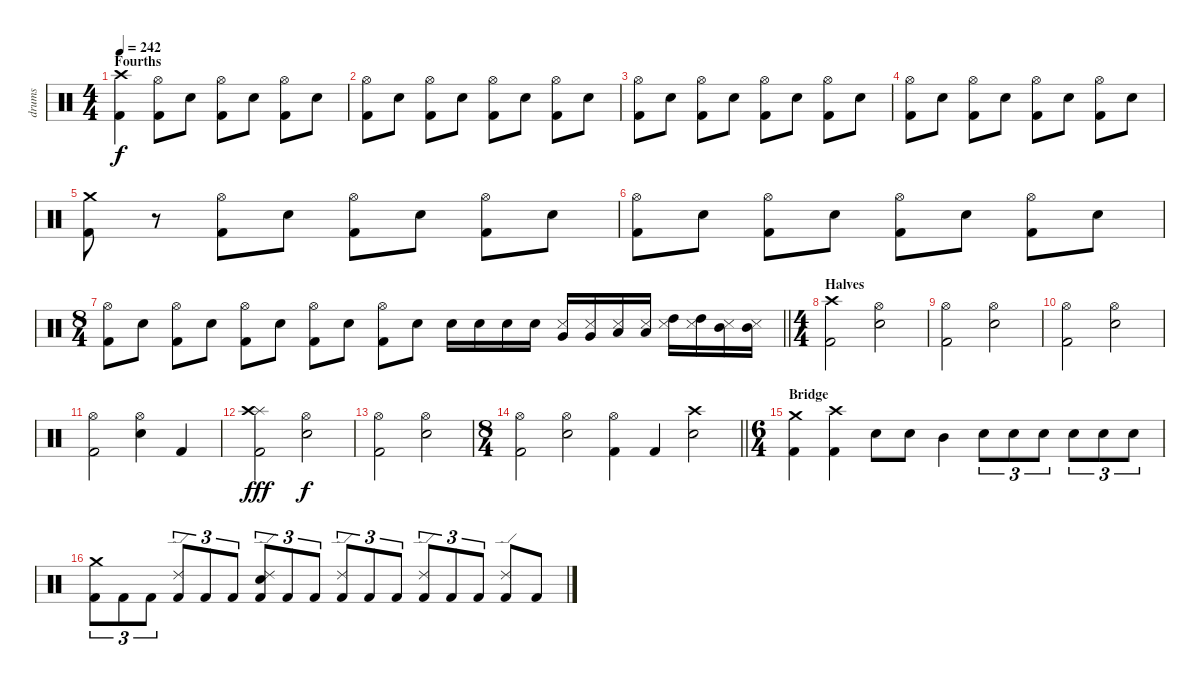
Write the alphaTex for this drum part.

\track ("drums" "drums") {instrument percussion}
\staff {score}
\articulation defaults
\ts (4 4)
\section ("" "Fourths")
\tempo 242
\clef neutral
\ks c
("Crash high (hit)" "Kick (hit) 2").4{dy f} ("Hi-Hat (open)" "Kick (hit) 2").8 "Electric Snare (hit)".8 ("Hi-Hat (open)" "Kick (hit) 2").8 "Electric Snare (hit)".8 ("Hi-Hat (open)" "Kick (hit) 2").8 "Electric Snare (hit)".8 |
("Hi-Hat (open)" "Kick (hit) 2").8 "Electric Snare (hit)".8 ("Hi-Hat (open)" "Kick (hit) 2").8 "Electric Snare (hit)".8 ("Hi-Hat (open)" "Kick (hit) 2").8 "Electric Snare (hit)".8 ("Hi-Hat (open)" "Kick (hit) 2").8 "Electric Snare (hit)".8 |
("Hi-Hat (open)" "Kick (hit) 2").8 "Electric Snare (hit)".8 ("Hi-Hat (open)" "Kick (hit) 2").8 "Electric Snare (hit)".8 ("Hi-Hat (open)" "Kick (hit) 2").8 "Electric Snare (hit)".8 ("Hi-Hat (open)" "Kick (hit) 2").8 "Electric Snare (hit)".8 |
("Hi-Hat (open)" "Kick (hit) 2").8 "Electric Snare (hit)".8 ("Hi-Hat (open)" "Kick (hit) 2").8 "Electric Snare (hit)".8 ("Hi-Hat (open)" "Kick (hit) 2").8 "Electric Snare (hit)".8 ("Hi-Hat (open)" "Kick (hit) 2").8 "Electric Snare (hit)".8 |
("Crash medium (hit)" "Kick (hit) 2").8 r.8 ("Hi-Hat (open)" "Kick (hit) 2").8 "Electric Snare (hit)".8 ("Hi-Hat (open)" "Kick (hit) 2").8 "Electric Snare (hit)".8 ("Hi-Hat (open)" "Kick (hit) 2").8 "Electric Snare (hit)".8 |
("Hi-Hat (open)" "Kick (hit) 2").8 "Electric Snare (hit)".8 ("Hi-Hat (open)" "Kick (hit) 2").8 "Electric Snare (hit)".8 ("Hi-Hat (open)" "Kick (hit) 2").8 "Electric Snare (hit)".8 ("Hi-Hat (open)" "Kick (hit) 2").8 "Electric Snare (hit)".8 |
\ts (8 4)
\barLineRight lightlight
("Hi-Hat (open)" "Kick (hit) 2").8 "Electric Snare (hit)".8 ("Hi-Hat (open)" "Kick (hit) 2").8 "Electric Snare (hit)".8 ("Hi-Hat (open)" "Kick (hit) 2").8 "Electric Snare (hit)".8 ("Hi-Hat (open)" "Kick (hit) 2").8 "Electric Snare (hit)".8 ("Hi-Hat (open)" "Kick (hit) 2").8 "Electric Snare (hit)".8 "Electric Snare (hit)".16 "Electric Snare (hit)".16 "Electric Snare (hit)".16 "Electric Snare (hit)".16 ("Metronome (hit)" "Very Low Tom (hit)").16 ("Metronome (hit)" "Very Low Tom (hit)").16 ("Metronome (hit)" "Low Tom (hit)").16 ("Metronome (hit)" "Low Tom (hit)").16 ("Metronome (hit)" "High Tom (hit)").16 ("Metronome (hit)" "High Tom (hit)").16 ("Metronome (hit)" "Mid Tom (hit)").16 ("Metronome (hit)" "Mid Tom (hit)").16 |
\ts (4 4)
\section ("" "Halves")
("Crash high (hit)" "Kick (hit) 2").2 ("Hi-Hat (open)" "Electric Snare (hit)").2 |
("Hi-Hat (open)" "Kick (hit) 2").2 ("Hi-Hat (open)" "Electric Snare (hit)").2 |
("Hi-Hat (open)" "Kick (hit) 2").2 ("Hi-Hat (open)" "Electric Snare (hit)").2 |
("Hi-Hat (open)" "Kick (hit) 2").2 ("Hi-Hat (open)" "Electric Snare (hit)").4 "Kick (hit) 2".4 |
("Splash (hit)" "Crash high (hit)" "Kick (hit) 2").2{dy fff} ("Hi-Hat (open)" "Electric Snare (hit)").2{dy f} |
("Hi-Hat (open)" "Kick (hit) 2").2 ("Hi-Hat (open)" "Electric Snare (hit)").2 |
\ts (8 4)
\barLineRight lightlight
("Hi-Hat (open)" "Kick (hit) 2").2 ("Hi-Hat (open)" "Electric Snare (hit)").2 ("Hi-Hat (open)" "Kick (hit) 2").4 "Kick (hit) 2".4 ("Crash high (hit)" "Electric Snare (hit)").2 |
\ts (6 4)
\section ("" "Bridge")
("Crash medium (hit)" "Kick (hit) 2").4 ("Crash high (hit)" "Kick (hit) 2").4 "Electric Snare (hit)".8 "Electric Snare (hit)".8 "Mid Tom (hit)".4 "Electric Snare (hit)".8{tu (3 2)} "Electric Snare (hit)".8{tu (3 2)} "Electric Snare (hit)".8{tu (3 2)} "Electric Snare (hit)".8{tu (3 2)} "Electric Snare (hit)".8{tu (3 2)} "Electric Snare (hit)".8{tu (3 2)} |
("Crash medium (hit)" "Kick (hit) 2").8{tu (3 2)} "Kick (hit) 2".8{tu (3 2)} "Kick (hit) 2".8{tu (3 2)} ("Ride (edge) 2" "Kick (hit) 2").8{tu (3 2)} "Kick (hit) 2".8{tu (3 2)} "Kick (hit) 2".8{tu (3 2)} ("Ride (edge) 2" "Electric Snare (hit)" "Kick (hit) 2").8{tu (3 2)} "Kick (hit) 2".8{tu (3 2)} "Kick (hit) 2".8{tu (3 2)} ("Ride (edge) 2" "Kick (hit) 2").8{tu (3 2)} "Kick (hit) 2".8{tu (3 2)} "Kick (hit) 2".8{tu (3 2)} ("Ride (edge) 2" "Kick (hit) 2").8{tu (3 2)} "Kick (hit) 2".8{tu (3 2)} "Kick (hit) 2".8{tu (3 2)} ("Ride (edge) 2" "Kick (hit) 2").8 "Kick (hit) 2".8
